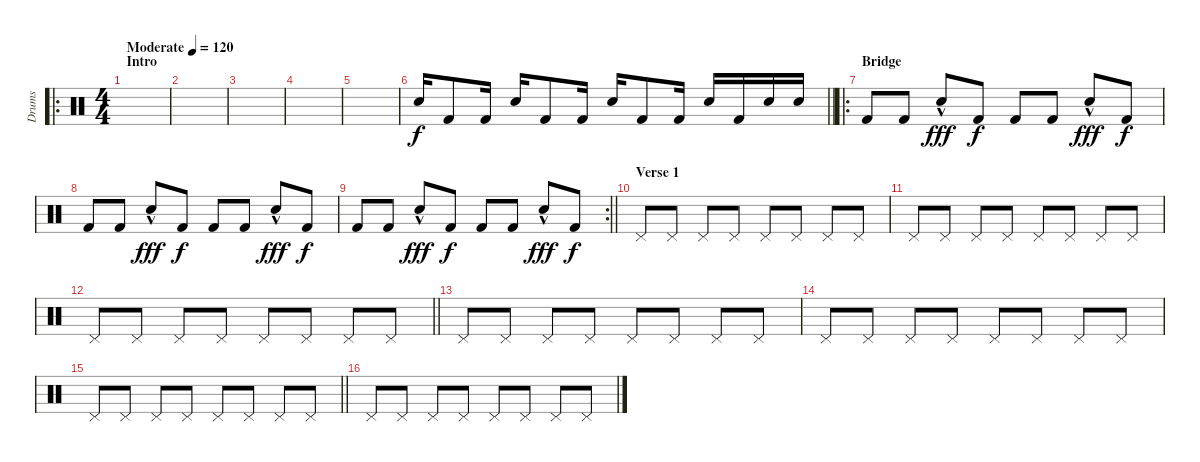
\track ("Drums" "Drums") {instrument percussion}
\staff {score}
\articulation defaults
\ro
\ts (4 4)
\section ("" "Intro")
\tempo (120 "Moderate")
\clef neutral
\ks c
|
|
|
|
|
\barLineRight lightlight "Snare (hit) 2".16 "Kick (hit) 2".8 "Kick (hit) 2".16 "Snare (hit) 2".16 "Kick (hit) 2".8 "Kick (hit) 2".16 "Snare (hit) 2".16 "Kick (hit) 2".8 "Kick (hit) 2".16 "Snare (hit) 2".16 "Kick (hit) 2".16 "Snare (hit) 2".16 "Snare (hit) 2".16
|
\ro
\section ("" "Bridge")
"Kick (hit) 2".8 "Kick (hit) 2".8 "Snare (hit) 2"{hac}.8{dy fff} "Kick (hit) 2".8{dy f} "Kick (hit) 2".8 "Kick (hit) 2".8 "Snare (hit) 2"{hac}.8{dy fff} "Kick (hit) 2".8{dy f} |
"Kick (hit) 2".8 "Kick (hit) 2".8 "Snare (hit) 2"{hac}.8{dy fff} "Kick (hit) 2".8{dy f} "Kick (hit) 2".8 "Kick (hit) 2".8 "Snare (hit) 2"{hac}.8{dy fff} "Kick (hit) 2".8{dy f} |
\rc 2
\barLineRight lightlight "Kick (hit) 2".8 "Kick (hit) 2".8 "Snare (hit) 2"{hac}.8{dy fff} "Kick (hit) 2".8{dy f} "Kick (hit) 2".8 "Kick (hit) 2".8 "Snare (hit) 2"{hac}.8{dy fff} "Kick (hit) 2".8{dy f}
|
\section ("" "Verse 1")
"Pedal Hi-Hat (hit)".8 "Pedal Hi-Hat (hit)".8 "Pedal Hi-Hat (hit)".8 "Pedal Hi-Hat (hit)".8 "Pedal Hi-Hat (hit)".8 "Pedal Hi-Hat (hit)".8 "Pedal Hi-Hat (hit)".8 "Pedal Hi-Hat (hit)".8 |
"Pedal Hi-Hat (hit)".8 "Pedal Hi-Hat (hit)".8 "Pedal Hi-Hat (hit)".8 "Pedal Hi-Hat (hit)".8 "Pedal Hi-Hat (hit)".8 "Pedal Hi-Hat (hit)".8 "Pedal Hi-Hat (hit)".8 "Pedal Hi-Hat (hit)".8 |
\barLineRight lightlight "Pedal Hi-Hat (hit)".8 "Pedal Hi-Hat (hit)".8 "Pedal Hi-Hat (hit)".8 "Pedal Hi-Hat (hit)".8 "Pedal Hi-Hat (hit)".8 "Pedal Hi-Hat (hit)".8 "Pedal Hi-Hat (hit)".8 "Pedal Hi-Hat (hit)".8
|
"Pedal Hi-Hat (hit)".8 "Pedal Hi-Hat (hit)".8 "Pedal Hi-Hat (hit)".8 "Pedal Hi-Hat (hit)".8 "Pedal Hi-Hat (hit)".8 "Pedal Hi-Hat (hit)".8 "Pedal Hi-Hat (hit)".8 "Pedal Hi-Hat (hit)".8 |
"Pedal Hi-Hat (hit)".8 "Pedal Hi-Hat (hit)".8 "Pedal Hi-Hat (hit)".8 "Pedal Hi-Hat (hit)".8 "Pedal Hi-Hat (hit)".8 "Pedal Hi-Hat (hit)".8 "Pedal Hi-Hat (hit)".8 "Pedal Hi-Hat (hit)".8 |
\barLineRight lightlight "Pedal Hi-Hat (hit)".8 "Pedal Hi-Hat (hit)".8 "Pedal Hi-Hat (hit)".8 "Pedal Hi-Hat (hit)".8 "Pedal Hi-Hat (hit)".8 "Pedal Hi-Hat (hit)".8 "Pedal Hi-Hat (hit)".8 "Pedal Hi-Hat (hit)".8
|
"Pedal Hi-Hat (hit)".8 "Pedal Hi-Hat (hit)".8 "Pedal Hi-Hat (hit)".8 "Pedal Hi-Hat (hit)".8 "Pedal Hi-Hat (hit)".8 "Pedal Hi-Hat (hit)".8 "Pedal Hi-Hat (hit)".8 "Pedal Hi-Hat (hit)".8
